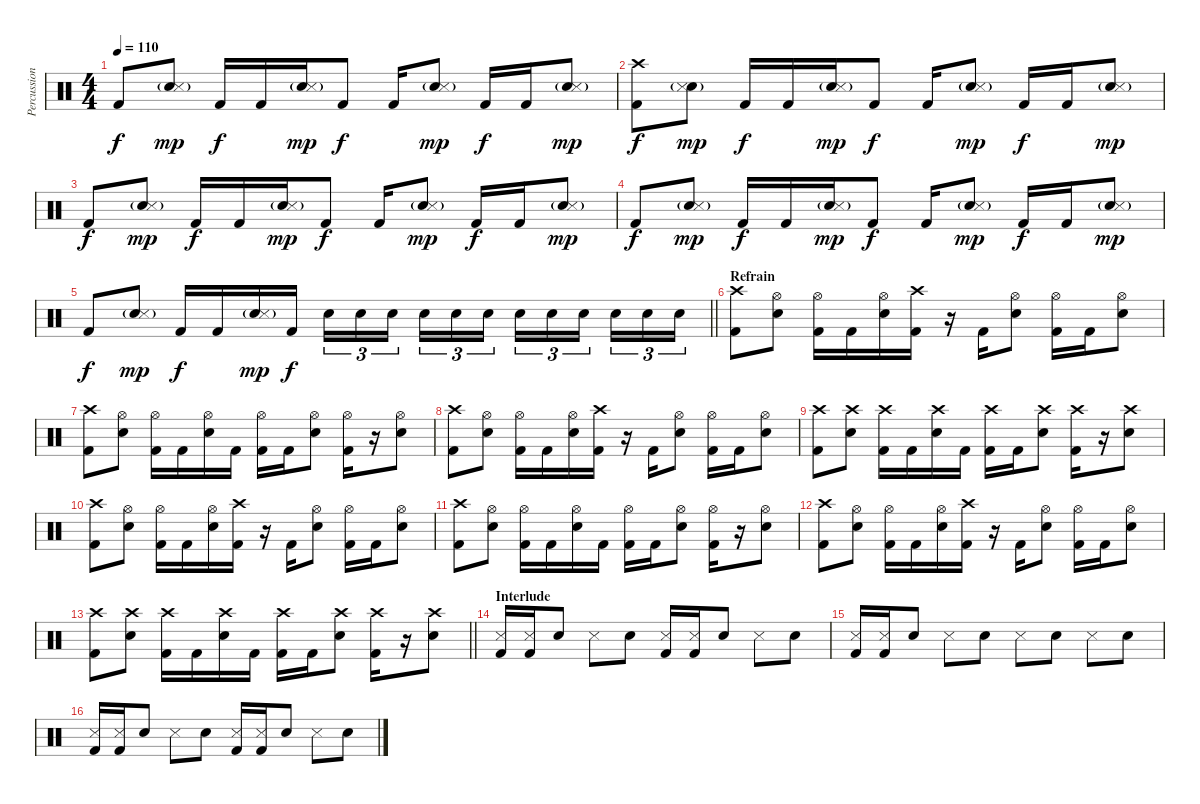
\track ("Percussions" "Percussion") {instrument percussion}
\staff {score}
\articulation defaults
\ts (4 4)
\tempo 110
\clef neutral
\ks c "Kick (hit) 2".8{dy f}
("Electric Snare (hit)"{g} "Snare (side stick) 3").8{dy mp} "Kick (hit) 2".16{dy f} "Kick (hit) 2".16 ("Electric Snare (hit)"{g} "Snare (side stick) 3").16{dy mp} "Kick (hit) 2".8{dy f} "Kick (hit) 2".16 ("Electric Snare (hit)"{g} "Snare (side stick) 3").8{dy mp} "Kick (hit) 2".16{dy f} "Kick (hit) 2".16 ("Electric Snare (hit)"{g} "Snare (side stick) 3").8{dy mp} |
("Crash high (hit)" "Kick (hit) 2").8{dy f} ("Electric Snare (hit)"{g} "Snare (side stick) 3").8{dy mp} "Kick (hit) 2".16{dy f} "Kick (hit) 2".16 ("Electric Snare (hit)"{g} "Snare (side stick) 3").16{dy mp} "Kick (hit) 2".8{dy f} "Kick (hit) 2".16 ("Electric Snare (hit)"{g} "Snare (side stick) 3").8{dy mp} "Kick (hit) 2".16{dy f} "Kick (hit) 2".16 ("Electric Snare (hit)"{g} "Snare (side stick) 3").8{dy mp} |
"Kick (hit) 2".8{dy f} ("Electric Snare (hit)"{g} "Snare (side stick) 3").8{dy mp} "Kick (hit) 2".16{dy f} "Kick (hit) 2".16 ("Electric Snare (hit)"{g} "Snare (side stick) 3").16{dy mp} "Kick (hit) 2".8{dy f} "Kick (hit) 2".16 ("Electric Snare (hit)"{g} "Snare (side stick) 3").8{dy mp} "Kick (hit) 2".16{dy f} "Kick (hit) 2".16 ("Electric Snare (hit)"{g} "Snare (side stick) 3").8{dy mp} |
"Kick (hit) 2".8{dy f} ("Electric Snare (hit)"{g} "Snare (side stick) 3").8{dy mp} "Kick (hit) 2".16{dy f} "Kick (hit) 2".16 ("Electric Snare (hit)"{g} "Snare (side stick) 3").16{dy mp} "Kick (hit) 2".8{dy f} "Kick (hit) 2".16 ("Electric Snare (hit)"{g} "Snare (side stick) 3").8{dy mp} "Kick (hit) 2".16{dy f} "Kick (hit) 2".16 ("Electric Snare (hit)"{g} "Snare (side stick) 3").8{dy mp} |
\barLineRight lightlight "Kick (hit) 2".8{dy f}
("Electric Snare (hit)"{g} "Snare (side stick) 3").8{dy mp} "Kick (hit) 2".16{dy f} "Kick (hit) 2".16 ("Electric Snare (hit)"{g} "Snare (side stick) 3").16{dy mp} "Kick (hit) 2".16{dy f} "Electric Snare (hit)".16{tu (3 2)} "Electric Snare (hit)".16{tu (3 2)} "Electric Snare (hit)".16{tu (3 2)} "Electric Snare (hit)".16{tu (3 2)} "Electric Snare (hit)".16{tu (3 2)} "Electric Snare (hit)".16{tu (3 2)} "Electric Snare (hit)".16{tu (3 2)} "Electric Snare (hit)".16{tu (3 2)} "Electric Snare (hit)".16{tu (3 2)} "Electric Snare (hit)".16{tu (3 2)} "Electric Snare (hit)".16{tu (3 2)} "Electric Snare (hit)".16{tu (3 2)} |
\section ("" "Refrain")
("Crash high (hit)" "Kick (hit) 2").8 ("Hi-Hat (open)" "Electric Snare (hit)").8 ("Hi-Hat (open)" "Kick (hit) 2").16 "Kick (hit) 2".16 ("Hi-Hat (open)" "Electric Snare (hit)").16 ("Crash high (hit)" "Kick (hit) 2").16 r.16 "Kick (hit) 2".16 ("Hi-Hat (open)" "Electric Snare (hit)").8 ("Hi-Hat (open)" "Kick (hit) 2").16 "Kick (hit) 2".16 ("Hi-Hat (open)" "Electric Snare (hit)").8 |
("Crash high (hit)" "Kick (hit) 2").8 ("Hi-Hat (open)" "Electric Snare (hit)").8 ("Hi-Hat (open)" "Kick (hit) 2").16 "Kick (hit) 2".16 ("Hi-Hat (open)" "Electric Snare (hit)").16 "Kick (hit) 2".16 ("Hi-Hat (open)" "Kick (hit) 2").16 "Kick (hit) 2".16 ("Hi-Hat (open)" "Electric Snare (hit)").8 ("Hi-Hat (open)" "Kick (hit) 2").16 r.16 ("Hi-Hat (open)" "Electric Snare (hit)").8 |
("Crash high (hit)" "Kick (hit) 2").8 ("Hi-Hat (open)" "Electric Snare (hit)").8 ("Hi-Hat (open)" "Kick (hit) 2").16 "Kick (hit) 2".16 ("Hi-Hat (open)" "Electric Snare (hit)").16 ("Crash high (hit)" "Kick (hit) 2").16 r.16 "Kick (hit) 2".16 ("Hi-Hat (open)" "Electric Snare (hit)").8 ("Hi-Hat (open)" "Kick (hit) 2").16 "Kick (hit) 2".16 ("Hi-Hat (open)" "Electric Snare (hit)").8 |
("Crash high (hit)" "Kick (hit) 2").8 ("Crash high (hit)" "Electric Snare (hit)").8 ("Crash high (hit)" "Kick (hit) 2").16 "Kick (hit) 2".16 ("Crash high (hit)" "Electric Snare (hit)").16 "Kick (hit) 2".16 ("Crash high (hit)" "Kick (hit) 2").16 "Kick (hit) 2".16 ("Crash high (hit)" "Electric Snare (hit)").8 ("Crash high (hit)" "Kick (hit) 2").16 r.16 ("Crash high (hit)" "Electric Snare (hit)").8 |
("Crash high (hit)" "Kick (hit) 2").8 ("Hi-Hat (open)" "Electric Snare (hit)").8 ("Hi-Hat (open)" "Kick (hit) 2").16 "Kick (hit) 2".16 ("Hi-Hat (open)" "Electric Snare (hit)").16 ("Crash high (hit)" "Kick (hit) 2").16 r.16 "Kick (hit) 2".16 ("Hi-Hat (open)" "Electric Snare (hit)").8 ("Hi-Hat (open)" "Kick (hit) 2").16 "Kick (hit) 2".16 ("Hi-Hat (open)" "Electric Snare (hit)").8 |
("Crash high (hit)" "Kick (hit) 2").8 ("Hi-Hat (open)" "Electric Snare (hit)").8 ("Hi-Hat (open)" "Kick (hit) 2").16 "Kick (hit) 2".16 ("Hi-Hat (open)" "Electric Snare (hit)").16 "Kick (hit) 2".16 ("Hi-Hat (open)" "Kick (hit) 2").16 "Kick (hit) 2".16 ("Hi-Hat (open)" "Electric Snare (hit)").8 ("Hi-Hat (open)" "Kick (hit) 2").16 r.16 ("Hi-Hat (open)" "Electric Snare (hit)").8 |
("Crash high (hit)" "Kick (hit) 2").8 ("Hi-Hat (open)" "Electric Snare (hit)").8 ("Hi-Hat (open)" "Kick (hit) 2").16 "Kick (hit) 2".16 ("Hi-Hat (open)" "Electric Snare (hit)").16 ("Crash high (hit)" "Kick (hit) 2").16 r.16 "Kick (hit) 2".16 ("Hi-Hat (open)" "Electric Snare (hit)").8 ("Hi-Hat (open)" "Kick (hit) 2").16 "Kick (hit) 2".16 ("Hi-Hat (open)" "Electric Snare (hit)").8 |
\barLineRight lightlight
("Crash high (hit)" "Kick (hit) 2").8 ("Crash high (hit)" "Electric Snare (hit)").8 ("Crash high (hit)" "Kick (hit) 2").16 "Kick (hit) 2".16 ("Crash high (hit)" "Electric Snare (hit)").16 "Kick (hit) 2".16 ("Crash high (hit)" "Kick (hit) 2").16 "Kick (hit) 2".16 ("Crash high (hit)" "Electric Snare (hit)").8 ("Crash high (hit)" "Kick (hit) 2").16 r.16 ("Crash high (hit)" "Electric Snare (hit)").8 |
\section ("" "Interlude")
("Snare (side stick) 3" "Kick (hit) 2").16 ("Snare (side stick) 3" "Kick (hit) 2").16 "Electric Snare (hit)".8 "Snare (side stick) 3".8 "Electric Snare (hit)".8 ("Snare (side stick) 3" "Kick (hit) 2").16 ("Snare (side stick) 3" "Kick (hit) 2").16 "Electric Snare (hit)".8 "Snare (side stick) 3".8 "Electric Snare (hit)".8 |
("Snare (side stick) 3" "Kick (hit) 2").16 ("Snare (side stick) 3" "Kick (hit) 2").16 "Electric Snare (hit)".8 "Snare (side stick) 3".8 "Electric Snare (hit)".8 "Snare (side stick) 3".8 "Electric Snare (hit)".8 "Snare (side stick) 3".8 "Electric Snare (hit)".8 |
("Snare (side stick) 3" "Kick (hit) 2").16 ("Snare (side stick) 3" "Kick (hit) 2").16 "Electric Snare (hit)".8 "Snare (side stick) 3".8 "Electric Snare (hit)".8 ("Snare (side stick) 3" "Kick (hit) 2").16 ("Snare (side stick) 3" "Kick (hit) 2").16 "Electric Snare (hit)".8 "Snare (side stick) 3".8 "Electric Snare (hit)".8
